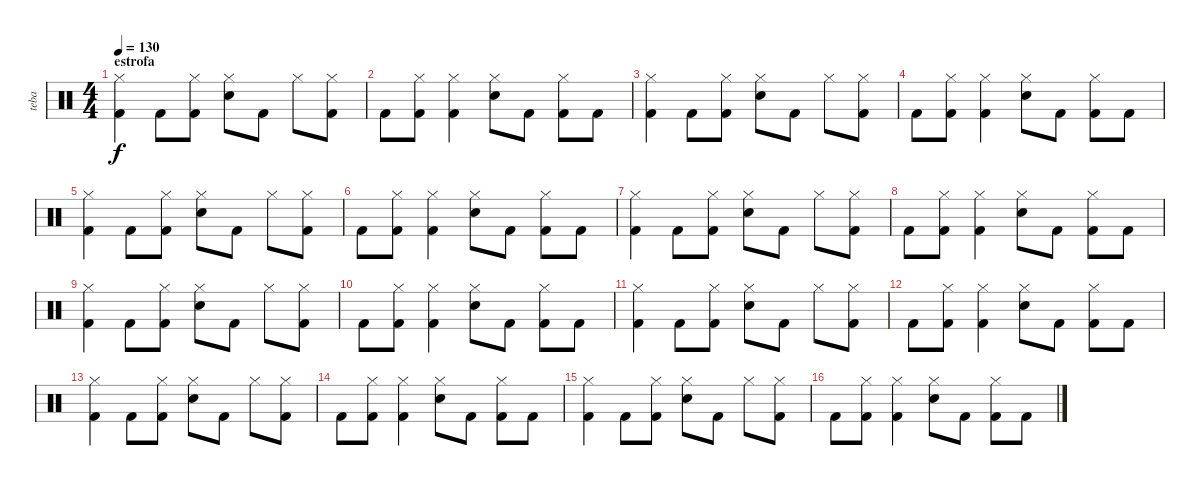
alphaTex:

\track ("teba" "teba") {instrument percussion}
\staff {score}
\articulation defaults
\ts (4 4)
\section ("" "estrofa")
\tempo 130
\clef neutral
\ks c
("Kick (hit) 2" "Hi-Hat (closed)").4{dy f} "Kick (hit) 2".8 ("Kick (hit) 2" "Hi-Hat (closed)").8 ("Electric Snare (hit)" "Hi-Hat (closed)").8 "Kick (hit) 2".8 "Hi-Hat (closed)".8 ("Kick (hit) 2" "Hi-Hat (closed)").8 |
"Kick (hit) 2".8 ("Kick (hit) 2" "Hi-Hat (closed)").8 ("Kick (hit) 2" "Hi-Hat (closed)").4 ("Electric Snare (hit)" "Hi-Hat (closed)").8 "Kick (hit) 2".8 ("Kick (hit) 2" "Hi-Hat (closed)").8 "Kick (hit) 2".8 |
("Kick (hit) 2" "Hi-Hat (closed)").4 "Kick (hit) 2".8 ("Kick (hit) 2" "Hi-Hat (closed)").8 ("Electric Snare (hit)" "Hi-Hat (closed)").8 "Kick (hit) 2".8 "Hi-Hat (closed)".8 ("Kick (hit) 2" "Hi-Hat (closed)").8 |
"Kick (hit) 2".8 ("Kick (hit) 2" "Hi-Hat (closed)").8 ("Kick (hit) 2" "Hi-Hat (closed)").4 ("Electric Snare (hit)" "Hi-Hat (closed)").8 "Kick (hit) 2".8 ("Kick (hit) 2" "Hi-Hat (closed)").8 "Kick (hit) 2".8 |
("Kick (hit) 2" "Hi-Hat (closed)").4 "Kick (hit) 2".8 ("Kick (hit) 2" "Hi-Hat (closed)").8 ("Electric Snare (hit)" "Hi-Hat (closed)").8 "Kick (hit) 2".8 "Hi-Hat (closed)".8 ("Kick (hit) 2" "Hi-Hat (closed)").8 |
"Kick (hit) 2".8 ("Kick (hit) 2" "Hi-Hat (closed)").8 ("Kick (hit) 2" "Hi-Hat (closed)").4 ("Electric Snare (hit)" "Hi-Hat (closed)").8 "Kick (hit) 2".8 ("Kick (hit) 2" "Hi-Hat (closed)").8 "Kick (hit) 2".8 |
("Kick (hit) 2" "Hi-Hat (closed)").4 "Kick (hit) 2".8 ("Kick (hit) 2" "Hi-Hat (closed)").8 ("Electric Snare (hit)" "Hi-Hat (closed)").8 "Kick (hit) 2".8 "Hi-Hat (closed)".8 ("Kick (hit) 2" "Hi-Hat (closed)").8 |
"Kick (hit) 2".8 ("Kick (hit) 2" "Hi-Hat (closed)").8 ("Kick (hit) 2" "Hi-Hat (closed)").4 ("Electric Snare (hit)" "Hi-Hat (closed)").8 "Kick (hit) 2".8 ("Kick (hit) 2" "Hi-Hat (closed)").8 "Kick (hit) 2".8 |
("Kick (hit) 2" "Hi-Hat (closed)").4 "Kick (hit) 2".8 ("Kick (hit) 2" "Hi-Hat (closed)").8 ("Electric Snare (hit)" "Hi-Hat (closed)").8 "Kick (hit) 2".8 "Hi-Hat (closed)".8 ("Kick (hit) 2" "Hi-Hat (closed)").8 |
"Kick (hit) 2".8 ("Kick (hit) 2" "Hi-Hat (closed)").8 ("Kick (hit) 2" "Hi-Hat (closed)").4 ("Electric Snare (hit)" "Hi-Hat (closed)").8 "Kick (hit) 2".8 ("Kick (hit) 2" "Hi-Hat (closed)").8 "Kick (hit) 2".8 |
("Kick (hit) 2" "Hi-Hat (closed)").4 "Kick (hit) 2".8 ("Kick (hit) 2" "Hi-Hat (closed)").8 ("Electric Snare (hit)" "Hi-Hat (closed)").8 "Kick (hit) 2".8 "Hi-Hat (closed)".8 ("Kick (hit) 2" "Hi-Hat (closed)").8 |
"Kick (hit) 2".8 ("Kick (hit) 2" "Hi-Hat (closed)").8 ("Kick (hit) 2" "Hi-Hat (closed)").4 ("Electric Snare (hit)" "Hi-Hat (closed)").8 "Kick (hit) 2".8 ("Kick (hit) 2" "Hi-Hat (closed)").8 "Kick (hit) 2".8 |
("Kick (hit) 2" "Hi-Hat (closed)").4 "Kick (hit) 2".8 ("Kick (hit) 2" "Hi-Hat (closed)").8 ("Electric Snare (hit)" "Hi-Hat (closed)").8 "Kick (hit) 2".8 "Hi-Hat (closed)".8 ("Kick (hit) 2" "Hi-Hat (closed)").8 |
"Kick (hit) 2".8 ("Kick (hit) 2" "Hi-Hat (closed)").8 ("Kick (hit) 2" "Hi-Hat (closed)").4 ("Electric Snare (hit)" "Hi-Hat (closed)").8 "Kick (hit) 2".8 ("Kick (hit) 2" "Hi-Hat (closed)").8 "Kick (hit) 2".8 |
("Kick (hit) 2" "Hi-Hat (closed)").4 "Kick (hit) 2".8 ("Kick (hit) 2" "Hi-Hat (closed)").8 ("Electric Snare (hit)" "Hi-Hat (closed)").8 "Kick (hit) 2".8 "Hi-Hat (closed)".8 ("Kick (hit) 2" "Hi-Hat (closed)").8 |
"Kick (hit) 2".8 ("Kick (hit) 2" "Hi-Hat (closed)").8 ("Kick (hit) 2" "Hi-Hat (closed)").4 ("Electric Snare (hit)" "Hi-Hat (closed)").8 "Kick (hit) 2".8 ("Kick (hit) 2" "Hi-Hat (closed)").8 "Kick (hit) 2".8
